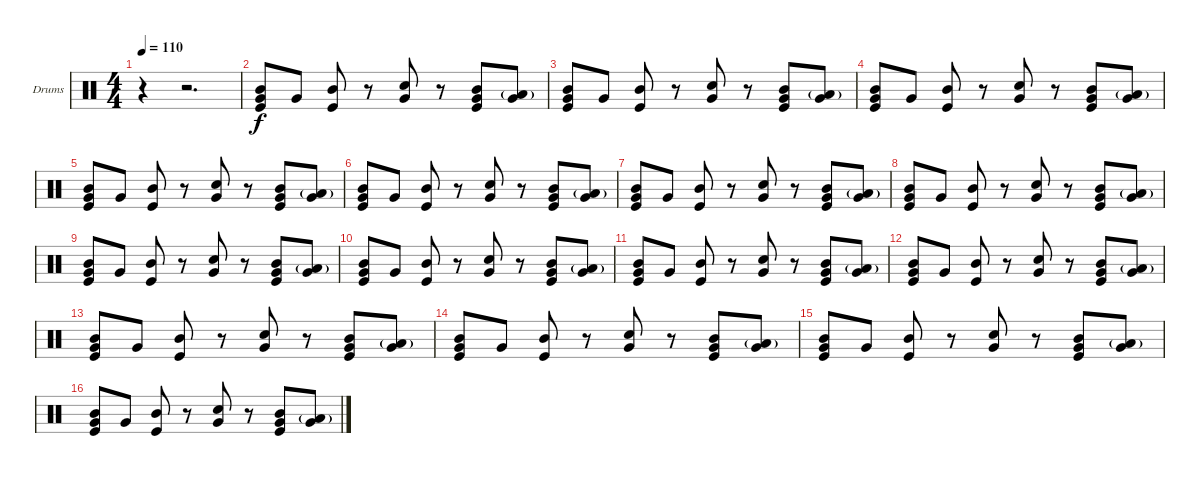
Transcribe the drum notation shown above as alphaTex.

\defaultSystemsLayout 4
\bracketExtendMode groupsimilarinstruments
\firstSystemTrackNameOrientation horizontal
\otherSystemsTrackNameOrientation horizontal
\track ("Drumkit" "Drums") {instrument percussion}
\staff {score}
\articulation defaults
\ts (4 4)
\tempo 110
\clef neutral
\scale
0.333333
\ks c
r.4{dy f} r.2{d} |
\scale
0.333333 ("Mid Tom (hit)" "Very Low Tom (hit)" "Kick (hit)").8 "Very Low Tom (hit)".8 ("Mid Tom (hit)" "Kick (hit)").8 r.8 ("Very Low Tom (hit)" "Snare (hit) 2").8 r.8 ("Mid Tom (hit)" "Very Low Tom (hit)" "Kick (hit)").8 ("Low Tom (hit)"{g} "Very Low Tom (hit)").8 |
\scale
0.333333 ("Mid Tom (hit)" "Very Low Tom (hit)" "Kick (hit)").8 "Very Low Tom (hit)".8 ("Mid Tom (hit)" "Kick (hit)").8 r.8 ("Very Low Tom (hit)" "Snare (hit) 2").8 r.8 ("Mid Tom (hit)" "Very Low Tom (hit)" "Kick (hit)").8 ("Low Tom (hit)"{g} "Very Low Tom (hit)").8 |
\scale
0.333333 ("Mid Tom (hit)" "Very Low Tom (hit)" "Kick (hit)").8 "Very Low Tom (hit)".8 ("Mid Tom (hit)" "Kick (hit)").8 r.8 ("Very Low Tom (hit)" "Snare (hit) 2").8 r.8 ("Mid Tom (hit)" "Very Low Tom (hit)" "Kick (hit)").8 ("Low Tom (hit)"{g} "Very Low Tom (hit)").8 |
\scale
0.333333 ("Mid Tom (hit)" "Very Low Tom (hit)" "Kick (hit)").8 "Very Low Tom (hit)".8 ("Mid Tom (hit)" "Kick (hit)").8 r.8 ("Very Low Tom (hit)" "Snare (hit) 2").8 r.8 ("Mid Tom (hit)" "Very Low Tom (hit)" "Kick (hit)").8 ("Low Tom (hit)"{g} "Very Low Tom (hit)").8 |
\scale
0.333333 ("Mid Tom (hit)" "Very Low Tom (hit)" "Kick (hit)").8 "Very Low Tom (hit)".8 ("Mid Tom (hit)" "Kick (hit)").8 r.8 ("Very Low Tom (hit)" "Snare (hit) 2").8 r.8 ("Mid Tom (hit)" "Very Low Tom (hit)" "Kick (hit)").8 ("Low Tom (hit)"{g} "Very Low Tom (hit)").8 |
\scale
0.333333 ("Mid Tom (hit)" "Very Low Tom (hit)" "Kick (hit)").8 "Very Low Tom (hit)".8 ("Mid Tom (hit)" "Kick (hit)").8 r.8 ("Very Low Tom (hit)" "Snare (hit) 2").8 r.8 ("Mid Tom (hit)" "Very Low Tom (hit)" "Kick (hit)").8 ("Low Tom (hit)"{g} "Very Low Tom (hit)").8 |
\scale
0.333333 ("Mid Tom (hit)" "Very Low Tom (hit)" "Kick (hit)").8 "Very Low Tom (hit)".8 ("Mid Tom (hit)" "Kick (hit)").8 r.8 ("Very Low Tom (hit)" "Snare (hit) 2").8 r.8 ("Mid Tom (hit)" "Very Low Tom (hit)" "Kick (hit)").8 ("Low Tom (hit)"{g} "Very Low Tom (hit)").8 |
\scale
0.333333 ("Mid Tom (hit)" "Very Low Tom (hit)" "Kick (hit)").8 "Very Low Tom (hit)".8 ("Mid Tom (hit)" "Kick (hit)").8 r.8 ("Very Low Tom (hit)" "Snare (hit) 2").8 r.8 ("Mid Tom (hit)" "Very Low Tom (hit)" "Kick (hit)").8 ("Low Tom (hit)"{g} "Very Low Tom (hit)").8 |
\scale
0.333333 ("Mid Tom (hit)" "Very Low Tom (hit)" "Kick (hit)").8 "Very Low Tom (hit)".8 ("Mid Tom (hit)" "Kick (hit)").8 r.8 ("Very Low Tom (hit)" "Snare (hit) 2").8 r.8 ("Mid Tom (hit)" "Very Low Tom (hit)" "Kick (hit)").8 ("Low Tom (hit)"{g} "Very Low Tom (hit)").8 |
\scale
0.333333 ("Mid Tom (hit)" "Very Low Tom (hit)" "Kick (hit)").8 "Very Low Tom (hit)".8 ("Mid Tom (hit)" "Kick (hit)").8 r.8 ("Very Low Tom (hit)" "Snare (hit) 2").8 r.8 ("Mid Tom (hit)" "Very Low Tom (hit)" "Kick (hit)").8 ("Low Tom (hit)"{g} "Very Low Tom (hit)").8 |
\scale
0.333333 ("Mid Tom (hit)" "Very Low Tom (hit)" "Kick (hit)").8 "Very Low Tom (hit)".8 ("Mid Tom (hit)" "Kick (hit)").8 r.8 ("Very Low Tom (hit)" "Snare (hit) 2").8 r.8 ("Mid Tom (hit)" "Very Low Tom (hit)" "Kick (hit)").8 ("Low Tom (hit)"{g} "Very Low Tom (hit)").8 |
\scale
0.333333 ("Mid Tom (hit)" "Very Low Tom (hit)" "Kick (hit)").8 "Very Low Tom (hit)".8 ("Mid Tom (hit)" "Kick (hit)").8 r.8 ("Very Low Tom (hit)" "Snare (hit) 2").8 r.8 ("Mid Tom (hit)" "Very Low Tom (hit)" "Kick (hit)").8 ("Low Tom (hit)"{g} "Very Low Tom (hit)").8 |
\scale
0.333333 ("Mid Tom (hit)" "Very Low Tom (hit)" "Kick (hit)").8 "Very Low Tom (hit)".8 ("Mid Tom (hit)" "Kick (hit)").8 r.8 ("Very Low Tom (hit)" "Snare (hit) 2").8 r.8 ("Mid Tom (hit)" "Very Low Tom (hit)" "Kick (hit)").8 ("Low Tom (hit)"{g} "Very Low Tom (hit)").8 |
\scale
0.333333 ("Mid Tom (hit)" "Very Low Tom (hit)" "Kick (hit)").8 "Very Low Tom (hit)".8 ("Mid Tom (hit)" "Kick (hit)").8 r.8 ("Very Low Tom (hit)" "Snare (hit) 2").8 r.8 ("Mid Tom (hit)" "Very Low Tom (hit)" "Kick (hit)").8 ("Low Tom (hit)"{g} "Very Low Tom (hit)").8 |
\scale
0.333333 ("Mid Tom (hit)" "Very Low Tom (hit)" "Kick (hit)").8 "Very Low Tom (hit)".8 ("Mid Tom (hit)" "Kick (hit)").8 r.8 ("Very Low Tom (hit)" "Snare (hit) 2").8 r.8 ("Mid Tom (hit)" "Very Low Tom (hit)" "Kick (hit)").8 ("Low Tom (hit)"{g} "Very Low Tom (hit)").8
